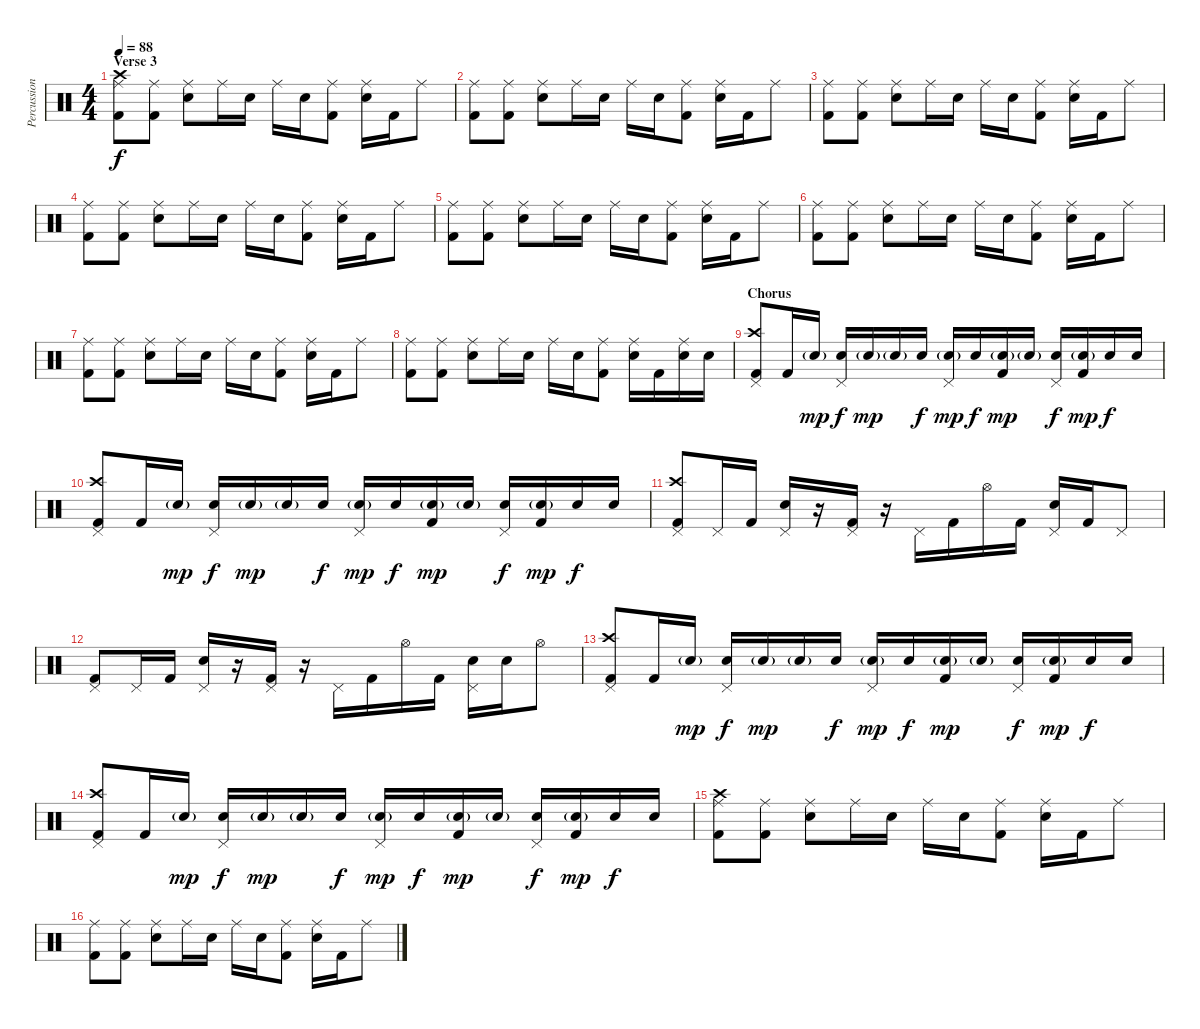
\track ("Percussion" "Percussion") {instrument percussion}
\staff {score}
\articulation defaults
\ts (4 4)
\section ("" "Verse 3")
\tempo 88
\clef neutral
\ks c
("Kick (hit) 2" "Ride (middle)" "Crash high (hit)").8{dy f} ("Kick (hit) 2" "Ride (middle)").8 ("Electric Snare (hit)" "Ride (middle)").8 "Ride (middle)".16 "Electric Snare (hit)".16 "Ride (middle)".16 "Electric Snare (hit)".16 ("Kick (hit) 2" "Ride (middle)").8 ("Electric Snare (hit)" "Ride (middle)").16 "Kick (hit) 2".16 "Ride (middle)".8 |
("Kick (hit) 2" "Ride (middle)").8 ("Kick (hit) 2" "Ride (middle)").8 ("Electric Snare (hit)" "Ride (middle)").8 "Ride (middle)".16 "Electric Snare (hit)".16 "Ride (middle)".16 "Electric Snare (hit)".16 ("Kick (hit) 2" "Ride (middle)").8 ("Electric Snare (hit)" "Ride (middle)").16 "Kick (hit) 2".16 "Ride (middle)".8 |
("Kick (hit) 2" "Ride (middle)").8 ("Kick (hit) 2" "Ride (middle)").8 ("Electric Snare (hit)" "Ride (middle)").8 "Ride (middle)".16 "Electric Snare (hit)".16 "Ride (middle)".16 "Electric Snare (hit)".16 ("Kick (hit) 2" "Ride (middle)").8 ("Electric Snare (hit)" "Ride (middle)").16 "Kick (hit) 2".16 "Ride (middle)".8 |
("Kick (hit) 2" "Ride (middle)").8 ("Kick (hit) 2" "Ride (middle)").8 ("Electric Snare (hit)" "Ride (middle)").8 "Ride (middle)".16 "Electric Snare (hit)".16 "Ride (middle)".16 "Electric Snare (hit)".16 ("Kick (hit) 2" "Ride (middle)").8 ("Electric Snare (hit)" "Ride (middle)").16 "Kick (hit) 2".16 "Ride (middle)".8 |
("Kick (hit) 2" "Ride (middle)").8 ("Kick (hit) 2" "Ride (middle)").8 ("Electric Snare (hit)" "Ride (middle)").8 "Ride (middle)".16 "Electric Snare (hit)".16 "Ride (middle)".16 "Electric Snare (hit)".16 ("Kick (hit) 2" "Ride (middle)").8 ("Electric Snare (hit)" "Ride (middle)").16 "Kick (hit) 2".16 "Ride (middle)".8 |
("Kick (hit) 2" "Ride (middle)").8 ("Kick (hit) 2" "Ride (middle)").8 ("Electric Snare (hit)" "Ride (middle)").8 "Ride (middle)".16 "Electric Snare (hit)".16 "Ride (middle)".16 "Electric Snare (hit)".16 ("Kick (hit) 2" "Ride (middle)").8 ("Electric Snare (hit)" "Ride (middle)").16 "Kick (hit) 2".16 "Ride (middle)".8 |
("Kick (hit) 2" "Ride (middle)").8 ("Kick (hit) 2" "Ride (middle)").8 ("Electric Snare (hit)" "Ride (middle)").8 "Ride (middle)".16 "Electric Snare (hit)".16 "Ride (middle)".16 "Electric Snare (hit)".16 ("Kick (hit) 2" "Ride (middle)").8 ("Electric Snare (hit)" "Ride (middle)").16 "Kick (hit) 2".16 "Ride (middle)".8 |
("Kick (hit) 2" "Ride (middle)").8 ("Kick (hit) 2" "Ride (middle)").8 ("Electric Snare (hit)" "Ride (middle)").8 "Ride (middle)".16 "Electric Snare (hit)".16 "Ride (middle)".16 "Electric Snare (hit)".16 ("Kick (hit) 2" "Ride (middle)").8 ("Electric Snare (hit)" "Ride (middle)").16 "Kick (hit) 2".16 ("Electric Snare (hit)" "Ride (middle)").16 "Electric Snare (hit)".16 |
\section ("" "Chorus")
("Kick (hit) 2" "Pedal Hi-Hat (hit)" "Crash high (hit)").8 "Kick (hit) 2".16 "Electric Snare (hit)"{g}.16{dy mp} ("Electric Snare (hit)" "Pedal Hi-Hat (hit)").16{dy f} "Electric Snare (hit)"{g}.16{dy mp} "Electric Snare (hit)"{g}.16 "Electric Snare (hit)".16{dy f} ("Electric Snare (hit)"{g} "Pedal Hi-Hat (hit)").16{dy mp} "Electric Snare (hit)".16{dy f} ("Kick (hit) 2" "Electric Snare (hit)"{g}).16{dy mp} "Electric Snare (hit)"{g}.16 ("Electric Snare (hit)" "Pedal Hi-Hat (hit)").16{dy f} ("Kick (hit) 2" "Electric Snare (hit)"{g}).16{dy mp} "Electric Snare (hit)".16{dy f} "Electric Snare (hit)".16 |
("Kick (hit) 2" "Pedal Hi-Hat (hit)" "Crash high (hit)").8 "Kick (hit) 2".16 "Electric Snare (hit)"{g}.16{dy mp} ("Electric Snare (hit)" "Pedal Hi-Hat (hit)").16{dy f} "Electric Snare (hit)"{g}.16{dy mp} "Electric Snare (hit)"{g}.16 "Electric Snare (hit)".16{dy f} ("Electric Snare (hit)"{g} "Pedal Hi-Hat (hit)").16{dy mp} "Electric Snare (hit)".16{dy f} ("Kick (hit) 2" "Electric Snare (hit)"{g}).16{dy mp} "Electric Snare (hit)"{g}.16 ("Electric Snare (hit)" "Pedal Hi-Hat (hit)").16{dy f} ("Kick (hit) 2" "Electric Snare (hit)"{g}).16{dy mp} "Electric Snare (hit)".16{dy f} "Electric Snare (hit)".16 |
("Kick (hit) 2" "Pedal Hi-Hat (hit)" "Crash high (hit)").8 "Pedal Hi-Hat (hit)".16 "Kick (hit) 2".16 ("Electric Snare (hit)" "Pedal Hi-Hat (hit)").16 r.16 ("Kick (hit) 2" "Pedal Hi-Hat (hit)").16 r.16 "Pedal Hi-Hat (hit)".16 "Kick (hit) 2".16 "Hi-Hat (open)".16 "Kick (hit) 2".16 ("Electric Snare (hit)" "Pedal Hi-Hat (hit)").16 "Kick (hit) 2".16 "Pedal Hi-Hat (hit)".8 |
("Kick (hit) 2" "Pedal Hi-Hat (hit)").8 "Pedal Hi-Hat (hit)".16 "Kick (hit) 2".16 ("Electric Snare (hit)" "Pedal Hi-Hat (hit)").16 r.16 ("Kick (hit) 2" "Pedal Hi-Hat (hit)").16 r.16 "Pedal Hi-Hat (hit)".16 "Kick (hit) 2".16 "Hi-Hat (open)".16 "Kick (hit) 2".16 ("Electric Snare (hit)" "Pedal Hi-Hat (hit)").16 "Electric Snare (hit)".16 "Hi-Hat (open)".8 |
("Kick (hit) 2" "Pedal Hi-Hat (hit)" "Crash high (hit)").8 "Kick (hit) 2".16 "Electric Snare (hit)"{g}.16{dy mp} ("Electric Snare (hit)" "Pedal Hi-Hat (hit)").16{dy f} "Electric Snare (hit)"{g}.16{dy mp} "Electric Snare (hit)"{g}.16 "Electric Snare (hit)".16{dy f} ("Electric Snare (hit)"{g} "Pedal Hi-Hat (hit)").16{dy mp} "Electric Snare (hit)".16{dy f} ("Kick (hit) 2" "Electric Snare (hit)"{g}).16{dy mp} "Electric Snare (hit)"{g}.16 ("Electric Snare (hit)" "Pedal Hi-Hat (hit)").16{dy f} ("Kick (hit) 2" "Electric Snare (hit)"{g}).16{dy mp} "Electric Snare (hit)".16{dy f} "Electric Snare (hit)".16 |
("Kick (hit) 2" "Pedal Hi-Hat (hit)" "Crash high (hit)").8 "Kick (hit) 2".16 "Electric Snare (hit)"{g}.16{dy mp} ("Electric Snare (hit)" "Pedal Hi-Hat (hit)").16{dy f} "Electric Snare (hit)"{g}.16{dy mp} "Electric Snare (hit)"{g}.16 "Electric Snare (hit)".16{dy f} ("Electric Snare (hit)"{g} "Pedal Hi-Hat (hit)").16{dy mp} "Electric Snare (hit)".16{dy f} ("Kick (hit) 2" "Electric Snare (hit)"{g}).16{dy mp} "Electric Snare (hit)"{g}.16 ("Electric Snare (hit)" "Pedal Hi-Hat (hit)").16{dy f} ("Kick (hit) 2" "Electric Snare (hit)"{g}).16{dy mp} "Electric Snare (hit)".16{dy f} "Electric Snare (hit)".16 |
("Kick (hit) 2" "Ride (middle)" "Crash high (hit)").8 ("Kick (hit) 2" "Ride (middle)").8 ("Electric Snare (hit)" "Ride (middle)").8 "Ride (middle)".16 "Electric Snare (hit)".16 "Ride (middle)".16 "Electric Snare (hit)".16 ("Kick (hit) 2" "Ride (middle)").8 ("Electric Snare (hit)" "Ride (middle)").16 "Kick (hit) 2".16 "Ride (middle)".8 |
("Kick (hit) 2" "Ride (middle)").8 ("Kick (hit) 2" "Ride (middle)").8 ("Electric Snare (hit)" "Ride (middle)").8 "Ride (middle)".16 "Electric Snare (hit)".16 "Ride (middle)".16 "Electric Snare (hit)".16 ("Kick (hit) 2" "Ride (middle)").8 ("Electric Snare (hit)" "Ride (middle)").16 "Kick (hit) 2".16 "Ride (middle)".8
